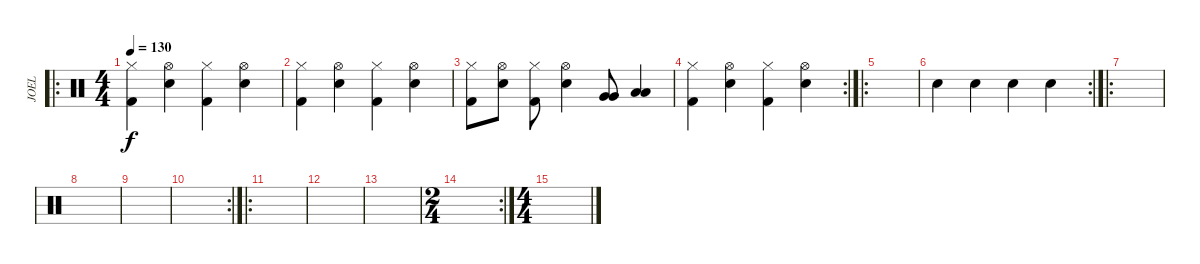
\track ("JOEL" "JOEL") {instrument percussion}
\staff {score}
\articulation defaults
\ro
\ts (4 4)
\tempo 130
\clef neutral
\ks c
("Hi-Hat (closed)" "Kick (hit) 2").4{dy f} ("Hi-Hat (open)" "Snare (hit) 2").4 ("Hi-Hat (closed)" "Kick (hit) 2").4 ("Hi-Hat (open)" "Snare (hit) 2").4 |
("Hi-Hat (closed)" "Kick (hit) 2").4 ("Hi-Hat (open)" "Snare (hit) 2").4 ("Hi-Hat (closed)" "Kick (hit) 2").4 ("Hi-Hat (open)" "Snare (hit) 2").4 |
("Hi-Hat (closed)" "Kick (hit) 2").8 ("Hi-Hat (open)" "Snare (hit) 2").8 ("Hi-Hat (closed)" "Kick (hit) 2").8 ("Hi-Hat (open)" "Snare (hit) 2").4 ("Very Low Tom (hit)" "Very Low Tom (hit)").8 ("Low Tom (hit)" "Low Tom (hit)").4 |
\rc 2
("Hi-Hat (closed)" "Kick (hit) 2").4 ("Hi-Hat (open)" "Snare (hit) 2").4 ("Hi-Hat (closed)" "Kick (hit) 2").4 ("Hi-Hat (open)" "Snare (hit) 2").4 |
\ro
|
\rc 2 "Snare (hit) 2".4 "Snare (hit) 2".4 "Snare (hit) 2".4 "Electric Snare (hit)".4
|
\ro
|
|
|
\rc 2
|
\ro
|
|
|
\rc 2
\ts (2 4)
|
\ts (4 4)
